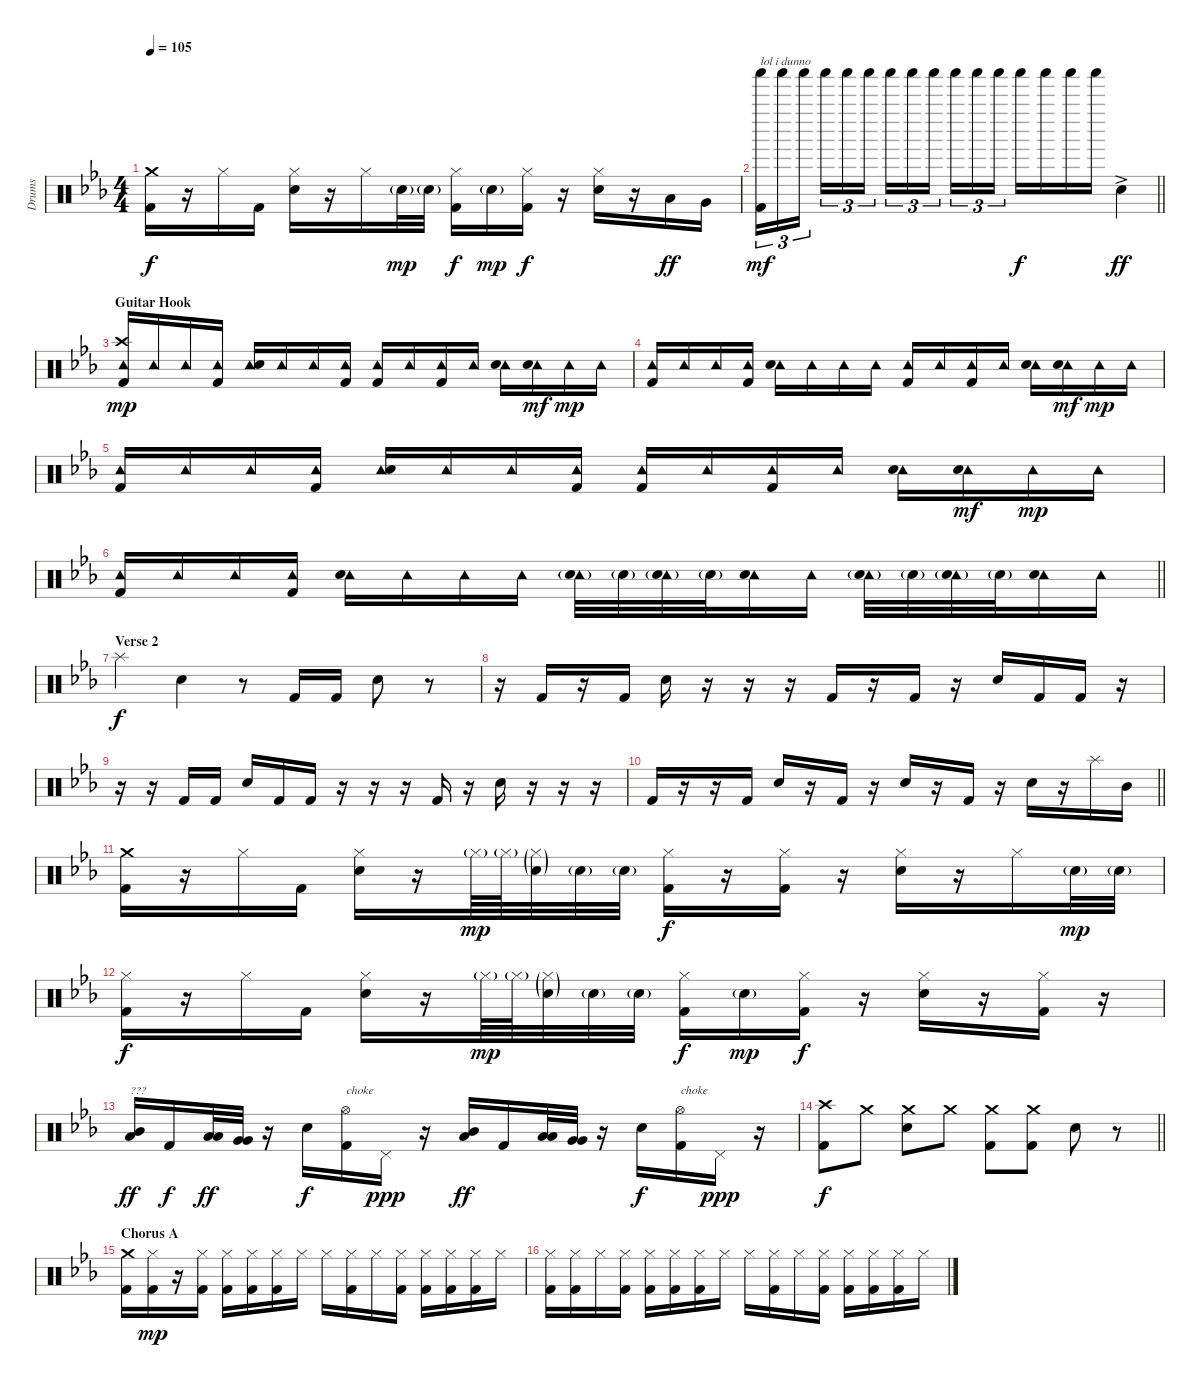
\track ("Drums" "Drums") {instrument percussion}
\staff {score}
\articulation defaults
\ts (4 4)
\tempo 105
\clef neutral
\ks eb
("Crash medium (hit)" "Kick (hit) 2").16{dy f} r.16 "Hi-Hat (closed)".16 "Kick (hit) 2".16 ("Hi-Hat (closed)" "Electric Snare (hit)").16 r.16 "Hi-Hat (closed)".16 "Electric Snare (hit)"{g}.32{dy mp} "Electric Snare (hit)"{g}.32 ("Hi-Hat (closed)" "Kick (hit) 2").16{dy f} "Electric Snare (hit)"{g}.16{dy mp} ("Hi-Hat (closed)" "Kick (hit) 2").16{dy f} r.16 ("Hi-Hat (closed)" "Electric Snare (hit)").16 r.16 "Low Tom (hit)".16{dy ff} "Very Low Tom (hit)".16 |
\barLineRight lightlight
("Shaker (hit)" "Kick (hit) 2").16{tu (3 2) txt "lol i dunno" dy mf} "Shaker (hit)".16{tu (3 2)} "Shaker (hit)".16{tu (3 2) beam splitsecondary} "Shaker (hit)".16{tu (3 2)} "Shaker (hit)".16{tu (3 2)} "Shaker (hit)".16{tu (3 2)} "Shaker (hit)".16{tu (3 2)} "Shaker (hit)".16{tu (3 2)} "Shaker (hit)".16{tu (3 2) beam splitsecondary} "Shaker (hit)".16{tu (3 2)} "Shaker (hit)".16{tu (3 2)} "Shaker (hit)".16{tu (3 2)} "Shaker (hit)".16{dy f} "Shaker (hit)".16 "Shaker (hit)".16 "Shaker (hit)".16 "Electric Snare (hit)"{ac}.4{dy ff} |
\section ("" "Guitar Hook")
("Crash high (hit)" "Tambourine (hit)" "Kick (hit) 2").16{dy mp} "Tambourine (hit)".16 "Tambourine (hit)".16 ("Tambourine (hit)" "Kick (hit) 2").16 ("Tambourine (hit)" "Electric Snare (hit)").16 "Tambourine (hit)".16 "Tambourine (hit)".16 ("Tambourine (hit)" "Kick (hit) 2").16 ("Tambourine (hit)" "Kick (hit) 2").16 "Tambourine (hit)".16 ("Tambourine (hit)" "Kick (hit) 2").16 "Tambourine (hit)".16 ("Tambourine (hit)" "Electric Snare (hit)").16 ("Tambourine (hit)" "Electric Snare (hit)").16{dy mf} "Tambourine (hit)".16{dy mp} "Tambourine (hit)".16 |
("Tambourine (hit)" "Kick (hit) 2").16 "Tambourine (hit)".16 "Tambourine (hit)".16 ("Tambourine (hit)" "Kick (hit) 2").16 ("Tambourine (hit)" "Electric Snare (hit)").16 "Tambourine (hit)".16 "Tambourine (hit)".16 "Tambourine (hit)".16 ("Tambourine (hit)" "Kick (hit) 2").16 "Tambourine (hit)".16 ("Tambourine (hit)" "Kick (hit) 2").16 "Tambourine (hit)".16 ("Tambourine (hit)" "Electric Snare (hit)").16 ("Tambourine (hit)" "Electric Snare (hit)").16{dy mf} "Tambourine (hit)".16{dy mp} "Tambourine (hit)".16 |
("Tambourine (hit)" "Kick (hit) 2").16 "Tambourine (hit)".16 "Tambourine (hit)".16 ("Tambourine (hit)" "Kick (hit) 2").16 ("Tambourine (hit)" "Electric Snare (hit)").16 "Tambourine (hit)".16 "Tambourine (hit)".16 ("Tambourine (hit)" "Kick (hit) 2").16 ("Tambourine (hit)" "Kick (hit) 2").16 "Tambourine (hit)".16 ("Tambourine (hit)" "Kick (hit) 2").16 "Tambourine (hit)".16 ("Tambourine (hit)" "Electric Snare (hit)").16 ("Tambourine (hit)" "Electric Snare (hit)").16{dy mf} "Tambourine (hit)".16{dy mp} "Tambourine (hit)".16 |
\barLineRight lightlight
("Tambourine (hit)" "Kick (hit) 2").16 "Tambourine (hit)".16 "Tambourine (hit)".16 ("Tambourine (hit)" "Kick (hit) 2").16 ("Tambourine (hit)" "Electric Snare (hit)").16 "Tambourine (hit)".16 "Tambourine (hit)".16 "Tambourine (hit)".16 ("Tambourine (hit)" "Electric Snare (hit)"{g}).32 "Electric Snare (hit)"{g}.32 ("Tambourine (hit)" "Electric Snare (hit)"{g}).32 "Electric Snare (hit)"{g}.32 ("Tambourine (hit)" "Electric Snare (hit)").16 "Tambourine (hit)".16 ("Tambourine (hit)" "Electric Snare (hit)"{g}).32 "Electric Snare (hit)"{g}.32 ("Tambourine (hit)" "Electric Snare (hit)"{g}).32 "Electric Snare (hit)"{g}.32 ("Tambourine (hit)" "Electric Snare (hit)").16 "Tambourine (hit)".16 |
\section ("" "Verse 2")
"Splash (hit)".4{dy f} "Electric Snare (hit)".4 r.8 "Kick (hit) 2".16 "Kick (hit) 2".16 "Electric Snare (hit)".8 r.8 |
r.16 "Kick (hit) 2".16 r.16 "Kick (hit) 2".16 "Electric Snare (hit)".16 r.16 r.16 r.16 "Kick (hit) 2".16 r.16 "Kick (hit) 2".16 r.16 "Electric Snare (hit)".16 "Kick (hit) 2".16 "Kick (hit) 2".16 r.16 |
r.16 r.16 "Kick (hit) 2".16 "Kick (hit) 2".16 "Electric Snare (hit)".16 "Kick (hit) 2".16 "Kick (hit) 2".16 r.16 r.16 r.16 "Kick (hit) 2".16 r.16 "Electric Snare (hit)".16 r.16 r.16 r.16 |
\barLineRight lightlight "Kick (hit) 2".16
r.16 r.16 "Kick (hit) 2".16 "Electric Snare (hit)".16 r.16 "Kick (hit) 2".16 r.16 "Electric Snare (hit)".16 r.16 "Kick (hit) 2".16 r.16 "Electric Snare (hit)".16 r.16 "Splash (hit)".16 "Mid Tom (hit)".16 |
("Crash medium (hit)" "Kick (hit) 2").16 r.16 "Hi-Hat (closed)".16 "Kick (hit) 2".16 ("Hi-Hat (closed)" "Electric Snare (hit)").16 r.16 "Hi-Hat (closed)"{g}.64{dy mp} "Hi-Hat (closed)"{g}.64 ("Hi-Hat (closed)"{g} "Electric Snare (hit)"{g}).32 "Electric Snare (hit)"{g}.32 "Electric Snare (hit)"{g}.32 ("Hi-Hat (closed)" "Kick (hit) 2").16{dy f} r.16 ("Hi-Hat (closed)" "Kick (hit) 2").16 r.16 ("Hi-Hat (closed)" "Electric Snare (hit)").16 r.16 "Hi-Hat (closed)".16 "Electric Snare (hit)"{g}.32{dy mp} "Electric Snare (hit)"{g}.32 |
("Hi-Hat (closed)" "Kick (hit) 2").16{dy f} r.16 "Hi-Hat (closed)".16 "Kick (hit) 2".16 ("Hi-Hat (closed)" "Electric Snare (hit)").16 r.16 "Hi-Hat (closed)"{g}.64{dy mp} "Hi-Hat (closed)"{g}.64 ("Hi-Hat (closed)"{g} "Electric Snare (hit)"{g}).32 "Electric Snare (hit)"{g}.32 "Electric Snare (hit)"{g}.32 ("Hi-Hat (closed)" "Kick (hit) 2").16{dy f} "Electric Snare (hit)"{g}.16{dy mp} ("Hi-Hat (closed)" "Kick (hit) 2").16{dy f} r.16 ("Hi-Hat (closed)" "Electric Snare (hit)").16 r.16 ("Hi-Hat (closed)" "Kick (hit) 2").16 r.16 |
("Mid Tom (hit)" "Low Tom (hit)").16{bu 240 txt "???" dy ff} "Kick (hit) 2".16{dy f} ("Low Tom (hit)" "Low Tom (hit)").32{dy ff} ("Very Low Tom (hit)" "Very Low Tom (hit)").32 r.16 "Electric Snare (hit)".16{dy f} ("Hi-Hat (open)" "Kick (hit) 2").16{txt "choke"} "Pedal Hi-Hat (hit)".16{dy ppp} r.16 ("Mid Tom (hit)" "Low Tom (hit)").16{bu 240 dy ff} "Kick (hit) 2".16 ("Low Tom (hit)" "Low Tom (hit)").32 ("Very Low Tom (hit)" "Very Low Tom (hit)").32 r.16 "Electric Snare (hit)".16{dy f} ("Hi-Hat (open)" "Kick (hit) 2").16{txt "choke"} "Pedal Hi-Hat (hit)".16{dy ppp} r.16 |
\barLineRight lightlight
("Crash high (hit)" "Kick (hit) 2").8{dy f} "Crash medium (hit)".8 ("Crash medium (hit)" "Electric Snare (hit)").8 "Crash medium (hit)".8 ("Crash medium (hit)" "Kick (hit) 2").8 ("Crash medium (hit)" "Kick (hit) 2").8 "Electric Snare (hit)".8 r.8 |
\section ("" "Chorus A")
("Crash medium (hit)" "Kick (hit) 2").16 ("Hi-Hat (closed)" "Kick (hit) 2").16{dy mp} r.16 ("Hi-Hat (closed)" "Kick (hit) 2").16 ("Hi-Hat (closed)" "Kick (hit) 2").16 ("Hi-Hat (closed)" "Kick (hit) 2").16 ("Hi-Hat (closed)" "Kick (hit) 2").16 "Hi-Hat (closed)".16 "Hi-Hat (closed)".16 ("Hi-Hat (closed)" "Kick (hit) 2").16 "Hi-Hat (closed)".16 ("Hi-Hat (closed)" "Kick (hit) 2").16 ("Hi-Hat (closed)" "Kick (hit) 2").16 ("Hi-Hat (closed)" "Kick (hit) 2").16 ("Hi-Hat (closed)" "Kick (hit) 2").16 "Hi-Hat (closed)".16 |
("Hi-Hat (closed)" "Kick (hit) 2").16 ("Hi-Hat (closed)" "Kick (hit) 2").16 "Hi-Hat (closed)".16 ("Hi-Hat (closed)" "Kick (hit) 2").16 ("Hi-Hat (closed)" "Kick (hit) 2").16 ("Hi-Hat (closed)" "Kick (hit) 2").16 ("Hi-Hat (closed)" "Kick (hit) 2").16 "Hi-Hat (closed)".16 "Hi-Hat (closed)".16 ("Hi-Hat (closed)" "Kick (hit) 2").16 "Hi-Hat (closed)".16 ("Hi-Hat (closed)" "Kick (hit) 2").16 ("Hi-Hat (closed)" "Kick (hit) 2").16 ("Hi-Hat (closed)" "Kick (hit) 2").16 ("Hi-Hat (closed)" "Kick (hit) 2").16 "Hi-Hat (closed)".16
